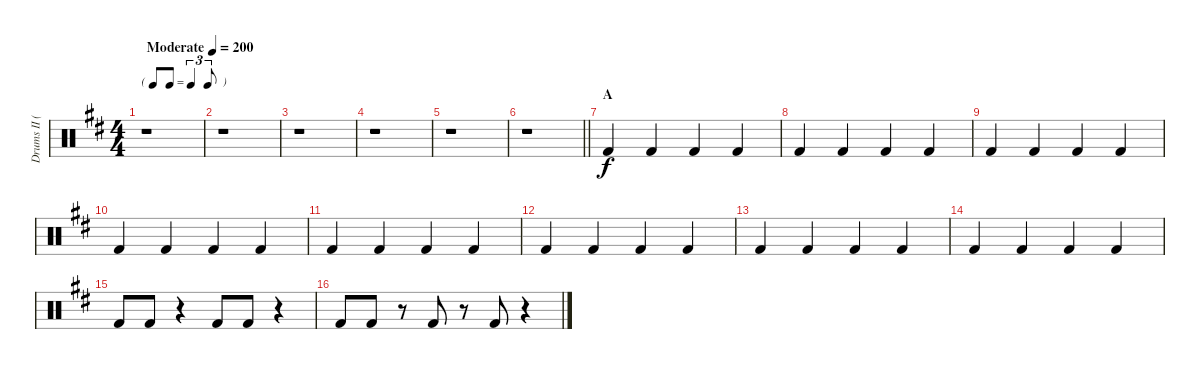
\track ("Drums II (Ruka)" "Drums II (") {instrument percussion}
\staff {score}
\articulation defaults
\ts (4 4)
\tf triplet8th
\tempo (200 "Moderate")
\clef neutral
\ks d
r.1{dy f} |
r.1 |
r.1 |
r.1 |
r.1 |
\barLineRight lightlight
r.1 |
\section ("" "A")
"Kick (hit) 2".4 "Kick (hit) 2".4 "Kick (hit) 2".4 "Kick (hit) 2".4 |
"Kick (hit) 2".4 "Kick (hit) 2".4 "Kick (hit) 2".4 "Kick (hit) 2".4 |
"Kick (hit) 2".4 "Kick (hit) 2".4 "Kick (hit) 2".4 "Kick (hit) 2".4 |
"Kick (hit) 2".4 "Kick (hit) 2".4 "Kick (hit) 2".4 "Kick (hit) 2".4 |
"Kick (hit) 2".4 "Kick (hit) 2".4 "Kick (hit) 2".4 "Kick (hit) 2".4 |
"Kick (hit) 2".4 "Kick (hit) 2".4 "Kick (hit) 2".4 "Kick (hit) 2".4 |
"Kick (hit) 2".4 "Kick (hit) 2".4 "Kick (hit) 2".4 "Kick (hit) 2".4 |
"Kick (hit) 2".4 "Kick (hit) 2".4 "Kick (hit) 2".4 "Kick (hit) 2".4 |
"Kick (hit) 2".8 "Kick (hit) 2".8 r.4 "Kick (hit) 2".8 "Kick (hit) 2".8 r.4 |
"Kick (hit) 2".8 "Kick (hit) 2".8 r.8 "Kick (hit) 2".8 r.8 "Kick (hit) 2".8 r.4
